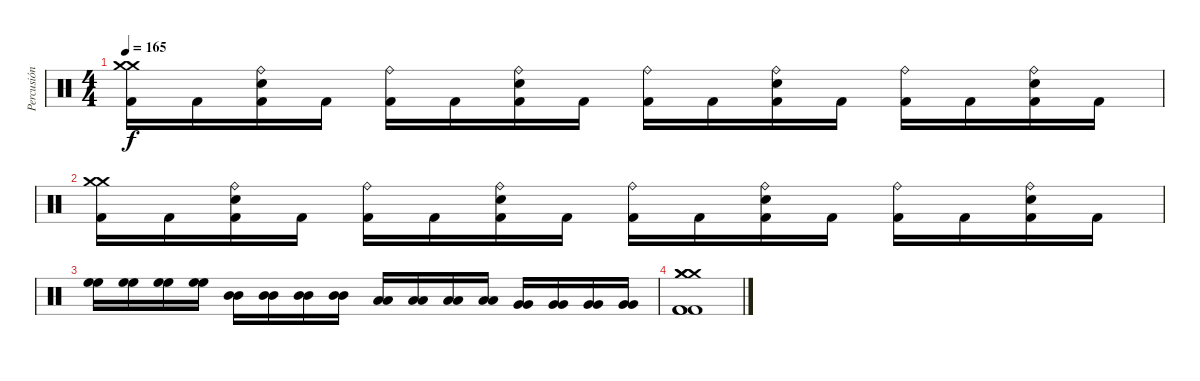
\track ("Percusión" "Percusión") {instrument percussion}
\staff {score}
\articulation defaults
\ts (4 4)
\tempo 165
\clef neutral
\ks c
("Crash medium (hit)" "Crash medium (hit)" "Kick (hit) 2").16{dy f} "Kick (hit) 2".16 ("Ride (bell)" "Snare (hit) 2" "Kick (hit) 2").16 "Kick (hit) 2".16 ("Ride (bell)" "Kick (hit) 2").16 "Kick (hit) 2".16 ("Ride (bell)" "Snare (hit) 2" "Kick (hit) 2").16 "Kick (hit) 2".16 ("Ride (bell)" "Kick (hit) 2").16 "Kick (hit) 2".16 ("Ride (bell)" "Snare (hit) 2" "Kick (hit) 2").16 "Kick (hit) 2".16 ("Ride (bell)" "Kick (hit) 2").16 "Kick (hit) 2".16 ("Ride (bell)" "Snare (hit) 2" "Kick (hit) 2").16 "Kick (hit) 2".16 |
("Crash medium (hit)" "Crash medium (hit)" "Kick (hit) 2").16 "Kick (hit) 2".16 ("Ride (bell)" "Snare (hit) 2" "Kick (hit) 2").16 "Kick (hit) 2".16 ("Ride (bell)" "Kick (hit) 2").16 "Kick (hit) 2".16 ("Ride (bell)" "Snare (hit) 2" "Kick (hit) 2").16 "Kick (hit) 2".16 ("Ride (bell)" "Kick (hit) 2").16 "Kick (hit) 2".16 ("Ride (bell)" "Snare (hit) 2" "Kick (hit) 2").16 "Kick (hit) 2".16 ("Ride (bell)" "Kick (hit) 2").16 "Kick (hit) 2".16 ("Ride (bell)" "Snare (hit) 2" "Kick (hit) 2").16 "Kick (hit) 2".16 |
("High Floor Tom (hit)" "High Floor Tom (hit)").16 ("High Floor Tom (hit)" "High Floor Tom (hit)").16 ("High Floor Tom (hit)" "High Floor Tom (hit)").16 ("High Floor Tom (hit)" "High Floor Tom (hit)").16 ("Mid Tom (hit)" "Mid Tom (hit)").16 ("Mid Tom (hit)" "Mid Tom (hit)").16 ("Mid Tom (hit)" "Mid Tom (hit)").16 ("Mid Tom (hit)" "Mid Tom (hit)").16 ("Low Tom (hit)" "Low Tom (hit)").16 ("Low Tom (hit)" "Low Tom (hit)").16 ("Low Tom (hit)" "Low Tom (hit)").16 ("Low Tom (hit)" "Low Tom (hit)").16 ("Very Low Tom (hit)" "Very Low Tom (hit)").16 ("Very Low Tom (hit)" "Very Low Tom (hit)").16 ("Very Low Tom (hit)" "Very Low Tom (hit)").16 ("Very Low Tom (hit)" "Very Low Tom (hit)").16 |
("Crash medium (hit)" "Crash medium (hit)" "Crash medium (hit)" "Kick (hit) 2" "Kick (hit) 2" "Kick (hit) 2").1
